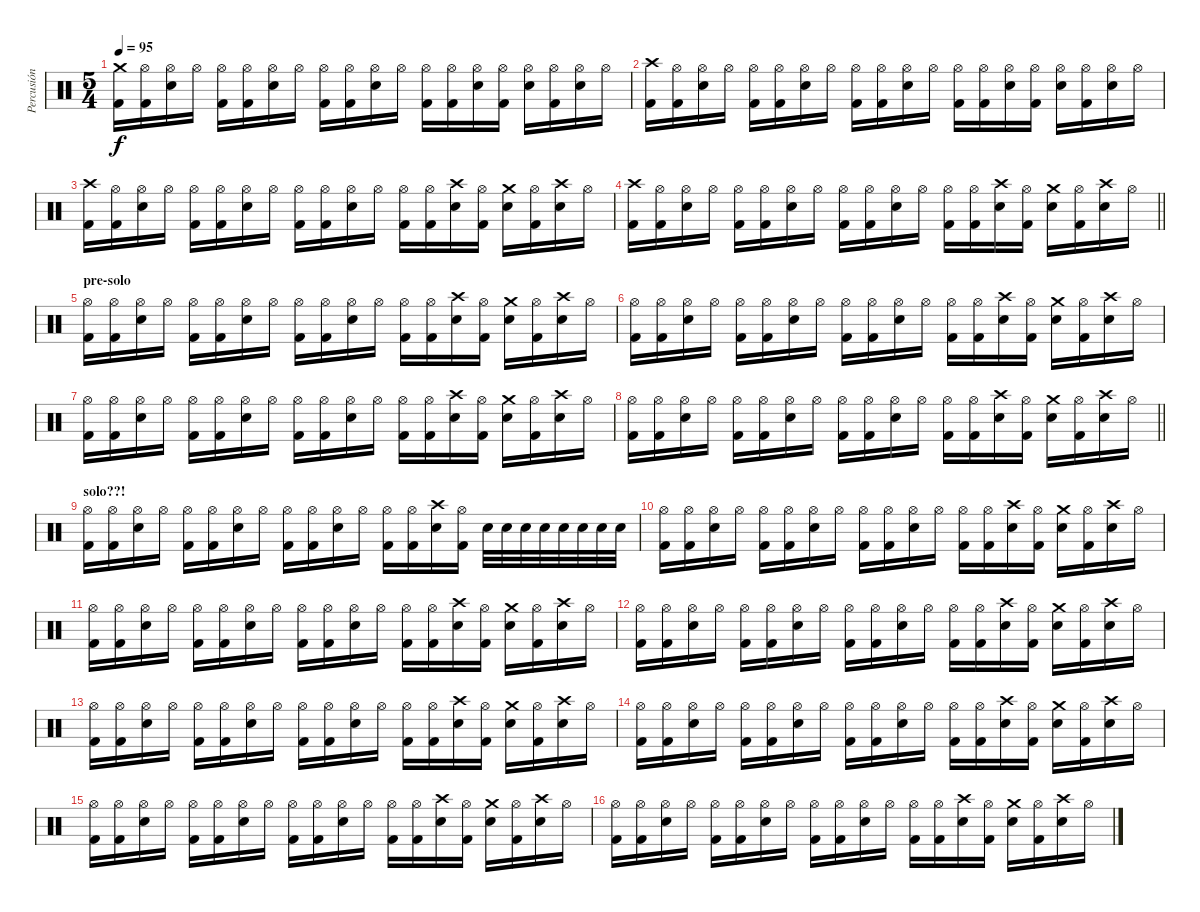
\track ("Percusión" "Percusión") {instrument percussion}
\staff {score}
\articulation defaults
\ts (5 4)
\tempo 95
\clef neutral
\ks c
("Crash medium (hit)" "Kick (hit) 2").16{dy f} ("Hi-Hat (open)" "Kick (hit) 2").16 ("Hi-Hat (open)" "Electric Snare (hit)").16 "Hi-Hat (open)".16 ("Hi-Hat (open)" "Kick (hit) 2").16 ("Hi-Hat (open)" "Kick (hit) 2").16 ("Hi-Hat (open)" "Electric Snare (hit)").16 "Hi-Hat (open)".16 ("Hi-Hat (open)" "Kick (hit) 2").16 ("Hi-Hat (open)" "Kick (hit) 2").16 ("Hi-Hat (open)" "Electric Snare (hit)").16 "Hi-Hat (open)".16 ("Hi-Hat (open)" "Kick (hit) 2").16 ("Hi-Hat (open)" "Kick (hit) 2").16 ("Hi-Hat (open)" "Electric Snare (hit)").16 ("Hi-Hat (open)" "Kick (hit) 2").16 ("Hi-Hat (open)" "Electric Snare (hit)").16 ("Hi-Hat (open)" "Kick (hit) 2").16 ("Hi-Hat (open)" "Electric Snare (hit)").16 "Hi-Hat (open)".16 |
("Crash high (hit)" "Kick (hit) 2").16 ("Hi-Hat (open)" "Kick (hit) 2").16 ("Hi-Hat (open)" "Electric Snare (hit)").16 "Hi-Hat (open)".16 ("Hi-Hat (open)" "Kick (hit) 2").16 ("Hi-Hat (open)" "Kick (hit) 2").16 ("Hi-Hat (open)" "Electric Snare (hit)").16 "Hi-Hat (open)".16 ("Hi-Hat (open)" "Kick (hit) 2").16 ("Hi-Hat (open)" "Kick (hit) 2").16 ("Hi-Hat (open)" "Electric Snare (hit)").16 "Hi-Hat (open)".16 ("Hi-Hat (open)" "Kick (hit) 2").16 ("Hi-Hat (open)" "Kick (hit) 2").16 ("Hi-Hat (open)" "Electric Snare (hit)").16 ("Hi-Hat (open)" "Kick (hit) 2").16 ("Hi-Hat (open)" "Electric Snare (hit)").16 ("Hi-Hat (open)" "Kick (hit) 2").16 ("Hi-Hat (open)" "Electric Snare (hit)").16 "Hi-Hat (open)".16 |
("Crash high (hit)" "Kick (hit) 2").16 ("Hi-Hat (open)" "Kick (hit) 2").16 ("Hi-Hat (open)" "Electric Snare (hit)").16 "Hi-Hat (open)".16 ("Hi-Hat (open)" "Kick (hit) 2").16 ("Hi-Hat (open)" "Kick (hit) 2").16 ("Hi-Hat (open)" "Electric Snare (hit)").16 "Hi-Hat (open)".16 ("Hi-Hat (open)" "Kick (hit) 2").16 ("Hi-Hat (open)" "Kick (hit) 2").16 ("Hi-Hat (open)" "Electric Snare (hit)").16 "Hi-Hat (open)".16 ("Hi-Hat (open)" "Kick (hit) 2").16 ("Hi-Hat (open)" "Kick (hit) 2").16 ("Crash high (hit)" "Electric Snare (hit)").16 ("Hi-Hat (open)" "Kick (hit) 2").16 ("Crash medium (hit)" "Electric Snare (hit)").16 ("Hi-Hat (open)" "Kick (hit) 2").16 ("Crash high (hit)" "Electric Snare (hit)").16 "Hi-Hat (open)".16 |
\barLineRight lightlight
("Crash high (hit)" "Kick (hit) 2").16 ("Hi-Hat (open)" "Kick (hit) 2").16 ("Hi-Hat (open)" "Electric Snare (hit)").16 "Hi-Hat (open)".16 ("Hi-Hat (open)" "Kick (hit) 2").16 ("Hi-Hat (open)" "Kick (hit) 2").16 ("Hi-Hat (open)" "Electric Snare (hit)").16 "Hi-Hat (open)".16 ("Hi-Hat (open)" "Kick (hit) 2").16 ("Hi-Hat (open)" "Kick (hit) 2").16 ("Hi-Hat (open)" "Electric Snare (hit)").16 "Hi-Hat (open)".16 ("Hi-Hat (open)" "Kick (hit) 2").16 ("Hi-Hat (open)" "Kick (hit) 2").16 ("Crash high (hit)" "Electric Snare (hit)").16 ("Hi-Hat (open)" "Kick (hit) 2").16 ("Crash medium (hit)" "Electric Snare (hit)").16 ("Hi-Hat (open)" "Kick (hit) 2").16 ("Crash high (hit)" "Electric Snare (hit)").16 "Hi-Hat (open)".16 |
\section ("" "pre-solo")
("Hi-Hat (open)" "Kick (hit) 2").16{volume 12} ("Hi-Hat (open)" "Kick (hit) 2").16 ("Hi-Hat (open)" "Electric Snare (hit)").16 "Hi-Hat (open)".16 ("Hi-Hat (open)" "Kick (hit) 2").16 ("Hi-Hat (open)" "Kick (hit) 2").16 ("Hi-Hat (open)" "Electric Snare (hit)").16 "Hi-Hat (open)".16 ("Hi-Hat (open)" "Kick (hit) 2").16 ("Hi-Hat (open)" "Kick (hit) 2").16 ("Hi-Hat (open)" "Electric Snare (hit)").16 "Hi-Hat (open)".16 ("Hi-Hat (open)" "Kick (hit) 2").16 ("Hi-Hat (open)" "Kick (hit) 2").16 ("Crash high (hit)" "Electric Snare (hit)").16 ("Hi-Hat (open)" "Kick (hit) 2").16 ("Crash medium (hit)" "Electric Snare (hit)").16 ("Hi-Hat (open)" "Kick (hit) 2").16 ("Crash high (hit)" "Electric Snare (hit)").16 "Hi-Hat (open)".16 |
("Hi-Hat (open)" "Kick (hit) 2").16 ("Hi-Hat (open)" "Kick (hit) 2").16 ("Hi-Hat (open)" "Electric Snare (hit)").16 "Hi-Hat (open)".16 ("Hi-Hat (open)" "Kick (hit) 2").16 ("Hi-Hat (open)" "Kick (hit) 2").16 ("Hi-Hat (open)" "Electric Snare (hit)").16 "Hi-Hat (open)".16 ("Hi-Hat (open)" "Kick (hit) 2").16 ("Hi-Hat (open)" "Kick (hit) 2").16 ("Hi-Hat (open)" "Electric Snare (hit)").16 "Hi-Hat (open)".16 ("Hi-Hat (open)" "Kick (hit) 2").16 ("Hi-Hat (open)" "Kick (hit) 2").16 ("Crash high (hit)" "Electric Snare (hit)").16 ("Hi-Hat (open)" "Kick (hit) 2").16 ("Crash medium (hit)" "Electric Snare (hit)").16 ("Hi-Hat (open)" "Kick (hit) 2").16 ("Crash high (hit)" "Electric Snare (hit)").16 "Hi-Hat (open)".16 |
("Hi-Hat (open)" "Kick (hit) 2").16 ("Hi-Hat (open)" "Kick (hit) 2").16 ("Hi-Hat (open)" "Electric Snare (hit)").16 "Hi-Hat (open)".16 ("Hi-Hat (open)" "Kick (hit) 2").16 ("Hi-Hat (open)" "Kick (hit) 2").16 ("Hi-Hat (open)" "Electric Snare (hit)").16 "Hi-Hat (open)".16 ("Hi-Hat (open)" "Kick (hit) 2").16 ("Hi-Hat (open)" "Kick (hit) 2").16 ("Hi-Hat (open)" "Electric Snare (hit)").16 "Hi-Hat (open)".16 ("Hi-Hat (open)" "Kick (hit) 2").16 ("Hi-Hat (open)" "Kick (hit) 2").16 ("Crash high (hit)" "Electric Snare (hit)").16 ("Hi-Hat (open)" "Kick (hit) 2").16 ("Crash medium (hit)" "Electric Snare (hit)").16 ("Hi-Hat (open)" "Kick (hit) 2").16 ("Crash high (hit)" "Electric Snare (hit)").16 "Hi-Hat (open)".16 |
\barLineRight lightlight
("Hi-Hat (open)" "Kick (hit) 2").16 ("Hi-Hat (open)" "Kick (hit) 2").16 ("Hi-Hat (open)" "Electric Snare (hit)").16 "Hi-Hat (open)".16 ("Hi-Hat (open)" "Kick (hit) 2").16 ("Hi-Hat (open)" "Kick (hit) 2").16 ("Hi-Hat (open)" "Electric Snare (hit)").16 "Hi-Hat (open)".16 ("Hi-Hat (open)" "Kick (hit) 2").16 ("Hi-Hat (open)" "Kick (hit) 2").16 ("Hi-Hat (open)" "Electric Snare (hit)").16 "Hi-Hat (open)".16 ("Hi-Hat (open)" "Kick (hit) 2").16 ("Hi-Hat (open)" "Kick (hit) 2").16 ("Crash high (hit)" "Electric Snare (hit)").16 ("Hi-Hat (open)" "Kick (hit) 2").16 ("Crash medium (hit)" "Electric Snare (hit)").16 ("Hi-Hat (open)" "Kick (hit) 2").16 ("Crash high (hit)" "Electric Snare (hit)").16 "Hi-Hat (open)".16 |
\section ("" "solo??!")
("Hi-Hat (open)" "Kick (hit) 2").16 ("Hi-Hat (open)" "Kick (hit) 2").16 ("Hi-Hat (open)" "Electric Snare (hit)").16 "Hi-Hat (open)".16 ("Hi-Hat (open)" "Kick (hit) 2").16 ("Hi-Hat (open)" "Kick (hit) 2").16 ("Hi-Hat (open)" "Electric Snare (hit)").16 "Hi-Hat (open)".16 ("Hi-Hat (open)" "Kick (hit) 2").16 ("Hi-Hat (open)" "Kick (hit) 2").16 ("Hi-Hat (open)" "Electric Snare (hit)").16 "Hi-Hat (open)".16 ("Hi-Hat (open)" "Kick (hit) 2").16 ("Hi-Hat (open)" "Kick (hit) 2").16 ("Crash high (hit)" "Electric Snare (hit)").16 ("Hi-Hat (open)" "Kick (hit) 2").16 "Electric Snare (hit)".32 "Electric Snare (hit)".32 "Electric Snare (hit)".32 "Electric Snare (hit)".32 "Electric Snare (hit)".32 "Electric Snare (hit)".32 "Electric Snare (hit)".32 "Electric Snare (hit)".32 |
("Hi-Hat (open)" "Kick (hit) 2").16 ("Hi-Hat (open)" "Kick (hit) 2").16 ("Hi-Hat (open)" "Electric Snare (hit)").16 "Hi-Hat (open)".16 ("Hi-Hat (open)" "Kick (hit) 2").16 ("Hi-Hat (open)" "Kick (hit) 2").16 ("Hi-Hat (open)" "Electric Snare (hit)").16 "Hi-Hat (open)".16 ("Hi-Hat (open)" "Kick (hit) 2").16 ("Hi-Hat (open)" "Kick (hit) 2").16 ("Hi-Hat (open)" "Electric Snare (hit)").16 "Hi-Hat (open)".16 ("Hi-Hat (open)" "Kick (hit) 2").16 ("Hi-Hat (open)" "Kick (hit) 2").16 ("Crash high (hit)" "Electric Snare (hit)").16 ("Hi-Hat (open)" "Kick (hit) 2").16 ("Crash medium (hit)" "Electric Snare (hit)").16 ("Hi-Hat (open)" "Kick (hit) 2").16 ("Crash high (hit)" "Electric Snare (hit)").16 "Hi-Hat (open)".16 |
("Hi-Hat (open)" "Kick (hit) 2").16 ("Hi-Hat (open)" "Kick (hit) 2").16 ("Hi-Hat (open)" "Electric Snare (hit)").16 "Hi-Hat (open)".16 ("Hi-Hat (open)" "Kick (hit) 2").16 ("Hi-Hat (open)" "Kick (hit) 2").16 ("Hi-Hat (open)" "Electric Snare (hit)").16 "Hi-Hat (open)".16 ("Hi-Hat (open)" "Kick (hit) 2").16 ("Hi-Hat (open)" "Kick (hit) 2").16 ("Hi-Hat (open)" "Electric Snare (hit)").16 "Hi-Hat (open)".16 ("Hi-Hat (open)" "Kick (hit) 2").16 ("Hi-Hat (open)" "Kick (hit) 2").16 ("Crash high (hit)" "Electric Snare (hit)").16 ("Hi-Hat (open)" "Kick (hit) 2").16 ("Crash medium (hit)" "Electric Snare (hit)").16 ("Hi-Hat (open)" "Kick (hit) 2").16 ("Crash high (hit)" "Electric Snare (hit)").16 "Hi-Hat (open)".16 |
("Hi-Hat (open)" "Kick (hit) 2").16 ("Hi-Hat (open)" "Kick (hit) 2").16 ("Hi-Hat (open)" "Electric Snare (hit)").16 "Hi-Hat (open)".16 ("Hi-Hat (open)" "Kick (hit) 2").16 ("Hi-Hat (open)" "Kick (hit) 2").16 ("Hi-Hat (open)" "Electric Snare (hit)").16 "Hi-Hat (open)".16 ("Hi-Hat (open)" "Kick (hit) 2").16 ("Hi-Hat (open)" "Kick (hit) 2").16 ("Hi-Hat (open)" "Electric Snare (hit)").16 "Hi-Hat (open)".16 ("Hi-Hat (open)" "Kick (hit) 2").16 ("Hi-Hat (open)" "Kick (hit) 2").16 ("Crash high (hit)" "Electric Snare (hit)").16 ("Hi-Hat (open)" "Kick (hit) 2").16 ("Crash medium (hit)" "Electric Snare (hit)").16 ("Hi-Hat (open)" "Kick (hit) 2").16 ("Crash high (hit)" "Electric Snare (hit)").16 "Hi-Hat (open)".16 |
("Hi-Hat (open)" "Kick (hit) 2").16 ("Hi-Hat (open)" "Kick (hit) 2").16 ("Hi-Hat (open)" "Electric Snare (hit)").16 "Hi-Hat (open)".16 ("Hi-Hat (open)" "Kick (hit) 2").16 ("Hi-Hat (open)" "Kick (hit) 2").16 ("Hi-Hat (open)" "Electric Snare (hit)").16 "Hi-Hat (open)".16 ("Hi-Hat (open)" "Kick (hit) 2").16 ("Hi-Hat (open)" "Kick (hit) 2").16 ("Hi-Hat (open)" "Electric Snare (hit)").16 "Hi-Hat (open)".16 ("Hi-Hat (open)" "Kick (hit) 2").16 ("Hi-Hat (open)" "Kick (hit) 2").16 ("Crash high (hit)" "Electric Snare (hit)").16 ("Hi-Hat (open)" "Kick (hit) 2").16 ("Crash medium (hit)" "Electric Snare (hit)").16 ("Hi-Hat (open)" "Kick (hit) 2").16 ("Crash high (hit)" "Electric Snare (hit)").16 "Hi-Hat (open)".16 |
("Hi-Hat (open)" "Kick (hit) 2").16 ("Hi-Hat (open)" "Kick (hit) 2").16 ("Hi-Hat (open)" "Electric Snare (hit)").16 "Hi-Hat (open)".16 ("Hi-Hat (open)" "Kick (hit) 2").16 ("Hi-Hat (open)" "Kick (hit) 2").16 ("Hi-Hat (open)" "Electric Snare (hit)").16 "Hi-Hat (open)".16 ("Hi-Hat (open)" "Kick (hit) 2").16 ("Hi-Hat (open)" "Kick (hit) 2").16 ("Hi-Hat (open)" "Electric Snare (hit)").16 "Hi-Hat (open)".16 ("Hi-Hat (open)" "Kick (hit) 2").16 ("Hi-Hat (open)" "Kick (hit) 2").16 ("Crash high (hit)" "Electric Snare (hit)").16 ("Hi-Hat (open)" "Kick (hit) 2").16 ("Crash medium (hit)" "Electric Snare (hit)").16 ("Hi-Hat (open)" "Kick (hit) 2").16 ("Crash high (hit)" "Electric Snare (hit)").16 "Hi-Hat (open)".16 |
("Hi-Hat (open)" "Kick (hit) 2").16 ("Hi-Hat (open)" "Kick (hit) 2").16 ("Hi-Hat (open)" "Electric Snare (hit)").16 "Hi-Hat (open)".16 ("Hi-Hat (open)" "Kick (hit) 2").16 ("Hi-Hat (open)" "Kick (hit) 2").16 ("Hi-Hat (open)" "Electric Snare (hit)").16 "Hi-Hat (open)".16 ("Hi-Hat (open)" "Kick (hit) 2").16 ("Hi-Hat (open)" "Kick (hit) 2").16 ("Hi-Hat (open)" "Electric Snare (hit)").16 "Hi-Hat (open)".16 ("Hi-Hat (open)" "Kick (hit) 2").16 ("Hi-Hat (open)" "Kick (hit) 2").16 ("Crash high (hit)" "Electric Snare (hit)").16 ("Hi-Hat (open)" "Kick (hit) 2").16 ("Crash medium (hit)" "Electric Snare (hit)").16 ("Hi-Hat (open)" "Kick (hit) 2").16 ("Crash high (hit)" "Electric Snare (hit)").16 "Hi-Hat (open)".16 |
("Hi-Hat (open)" "Kick (hit) 2").16 ("Hi-Hat (open)" "Kick (hit) 2").16 ("Hi-Hat (open)" "Electric Snare (hit)").16 "Hi-Hat (open)".16 ("Hi-Hat (open)" "Kick (hit) 2").16 ("Hi-Hat (open)" "Kick (hit) 2").16 ("Hi-Hat (open)" "Electric Snare (hit)").16 "Hi-Hat (open)".16 ("Hi-Hat (open)" "Kick (hit) 2").16 ("Hi-Hat (open)" "Kick (hit) 2").16 ("Hi-Hat (open)" "Electric Snare (hit)").16 "Hi-Hat (open)".16 ("Hi-Hat (open)" "Kick (hit) 2").16 ("Hi-Hat (open)" "Kick (hit) 2").16 ("Crash high (hit)" "Electric Snare (hit)").16 ("Hi-Hat (open)" "Kick (hit) 2").16 ("Crash medium (hit)" "Electric Snare (hit)").16 ("Hi-Hat (open)" "Kick (hit) 2").16 ("Crash high (hit)" "Electric Snare (hit)").16 "Hi-Hat (open)".16
